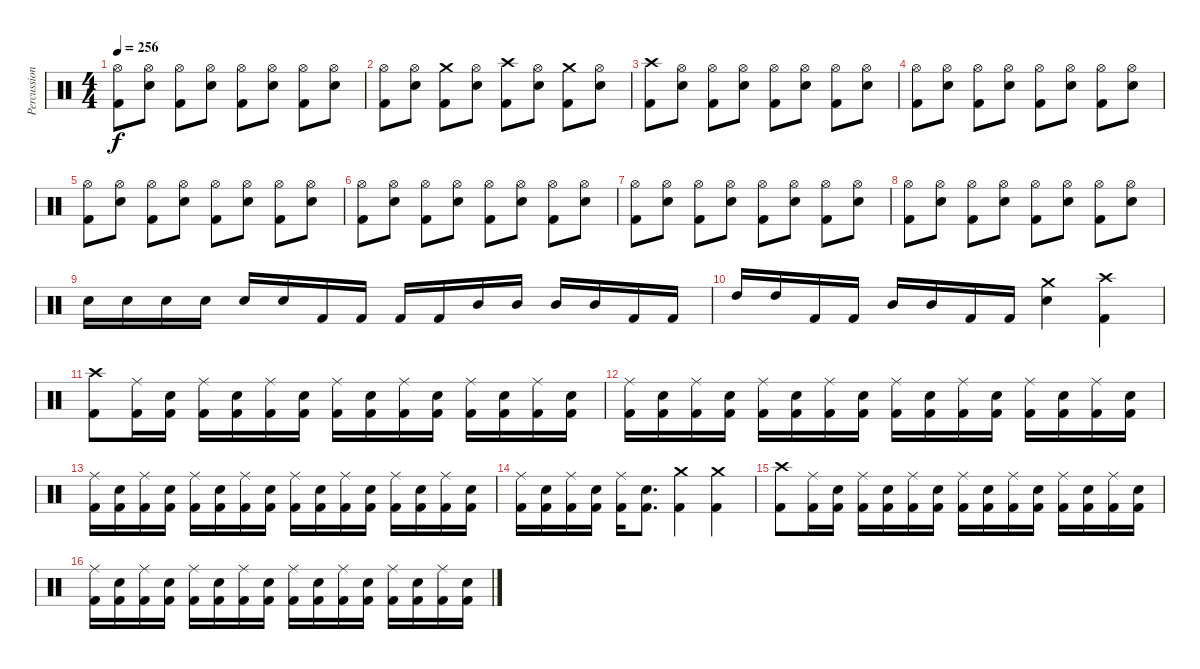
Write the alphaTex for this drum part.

\track ("Percussion" "Percussion") {instrument percussion}
\staff {score}
\articulation defaults
\ts (4 4)
\tempo 256
\clef neutral
\ks c
("Hi-Hat (open)" "Kick (hit) 2").8{dy f} ("Hi-Hat (open)" "Snare (hit) 2").8 ("Hi-Hat (open)" "Kick (hit) 2").8 ("Hi-Hat (open)" "Snare (hit) 2").8 ("Hi-Hat (open)" "Kick (hit) 2").8 ("Hi-Hat (open)" "Snare (hit) 2").8 ("Hi-Hat (open)" "Kick (hit) 2").8 ("Hi-Hat (open)" "Snare (hit) 2").8 |
("Hi-Hat (open)" "Kick (hit) 2").8 ("Hi-Hat (open)" "Snare (hit) 2").8 ("Crash medium (hit)" "Kick (hit) 2").8 ("Hi-Hat (open)" "Snare (hit) 2").8 ("Crash high (hit)" "Kick (hit) 2").8 ("Hi-Hat (open)" "Snare (hit) 2").8 ("Crash medium (hit)" "Kick (hit) 2").8 ("Hi-Hat (open)" "Snare (hit) 2").8 |
("Crash high (hit)" "Kick (hit) 2").8 ("Hi-Hat (open)" "Snare (hit) 2").8 ("Hi-Hat (open)" "Kick (hit) 2").8 ("Hi-Hat (open)" "Snare (hit) 2").8 ("Hi-Hat (open)" "Kick (hit) 2").8 ("Hi-Hat (open)" "Snare (hit) 2").8 ("Hi-Hat (open)" "Kick (hit) 2").8 ("Hi-Hat (open)" "Snare (hit) 2").8 |
("Hi-Hat (open)" "Kick (hit) 2").8 ("Hi-Hat (open)" "Snare (hit) 2").8 ("Hi-Hat (open)" "Kick (hit) 2").8 ("Hi-Hat (open)" "Snare (hit) 2").8 ("Hi-Hat (open)" "Kick (hit) 2").8 ("Hi-Hat (open)" "Snare (hit) 2").8 ("Hi-Hat (open)" "Kick (hit) 2").8 ("Hi-Hat (open)" "Snare (hit) 2").8 |
("Hi-Hat (open)" "Kick (hit) 2").8 ("Hi-Hat (open)" "Snare (hit) 2").8 ("Hi-Hat (open)" "Kick (hit) 2").8 ("Hi-Hat (open)" "Snare (hit) 2").8 ("Hi-Hat (open)" "Kick (hit) 2").8 ("Hi-Hat (open)" "Snare (hit) 2").8 ("Hi-Hat (open)" "Kick (hit) 2").8 ("Hi-Hat (open)" "Snare (hit) 2").8 |
("Hi-Hat (open)" "Kick (hit) 2").8 ("Hi-Hat (open)" "Snare (hit) 2").8 ("Hi-Hat (open)" "Kick (hit) 2").8 ("Hi-Hat (open)" "Snare (hit) 2").8 ("Hi-Hat (open)" "Kick (hit) 2").8 ("Hi-Hat (open)" "Snare (hit) 2").8 ("Hi-Hat (open)" "Kick (hit) 2").8 ("Hi-Hat (open)" "Snare (hit) 2").8 |
("Hi-Hat (open)" "Kick (hit) 2").8 ("Hi-Hat (open)" "Snare (hit) 2").8 ("Hi-Hat (open)" "Kick (hit) 2").8 ("Hi-Hat (open)" "Snare (hit) 2").8 ("Hi-Hat (open)" "Kick (hit) 2").8 ("Hi-Hat (open)" "Snare (hit) 2").8 ("Hi-Hat (open)" "Kick (hit) 2").8 ("Hi-Hat (open)" "Snare (hit) 2").8 |
("Hi-Hat (open)" "Kick (hit) 2").8 ("Hi-Hat (open)" "Snare (hit) 2").8 ("Hi-Hat (open)" "Kick (hit) 2").8 ("Hi-Hat (open)" "Snare (hit) 2").8 ("Hi-Hat (open)" "Kick (hit) 2").8 ("Hi-Hat (open)" "Snare (hit) 2").8 ("Hi-Hat (open)" "Kick (hit) 2").8 ("Hi-Hat (open)" "Snare (hit) 2").8 |
"Snare (hit) 2".16 "Snare (hit) 2".16 "Snare (hit) 2".16 "Snare (hit) 2".16 "Snare (hit) 2".16 "Snare (hit) 2".16 "Kick (hit) 2".16 "Kick (hit) 2".16 "Kick (hit) 2".16 "Kick (hit) 2".16 "Mid Tom (hit)".16 "Mid Tom (hit)".16 "Mid Tom (hit)".16 "Mid Tom (hit)".16 "Kick (hit) 2".16 "Kick (hit) 2".16 |
"High Tom (hit)".16 "High Tom (hit)".16 "Kick (hit) 2".16 "Kick (hit) 2".16 "Mid Tom (hit)".16 "Mid Tom (hit)".16 "Kick (hit) 2".16 "Kick (hit) 2".16 ("Crash medium (hit)" "Snare (hit) 2").4 ("Crash high (hit)" "Kick (hit) 2").4 |
("Crash high (hit)" "Kick (hit) 2").8 ("Ride (middle)" "Kick (hit) 2").16 ("Snare (hit) 2" "Kick (hit) 2").16 ("Ride (middle)" "Kick (hit) 2").16 ("Snare (hit) 2" "Kick (hit) 2").16 ("Ride (middle)" "Kick (hit) 2").16 ("Snare (hit) 2" "Kick (hit) 2").16 ("Ride (middle)" "Kick (hit) 2").16 ("Snare (hit) 2" "Kick (hit) 2").16 ("Ride (middle)" "Kick (hit) 2").16 ("Snare (hit) 2" "Kick (hit) 2").16 ("Ride (middle)" "Kick (hit) 2").16 ("Kick (hit) 2" "Snare (hit) 2").16 ("Ride (middle)" "Kick (hit) 2").16 ("Kick (hit) 2" "Snare (hit) 2").16 |
("Ride (middle)" "Kick (hit) 2").16 ("Snare (hit) 2" "Kick (hit) 2").16 ("Ride (middle)" "Kick (hit) 2").16 ("Snare (hit) 2" "Kick (hit) 2").16 ("Ride (middle)" "Kick (hit) 2").16 ("Snare (hit) 2" "Kick (hit) 2").16 ("Ride (middle)" "Kick (hit) 2").16 ("Snare (hit) 2" "Kick (hit) 2").16 ("Ride (middle)" "Kick (hit) 2").16 ("Snare (hit) 2" "Kick (hit) 2").16 ("Ride (middle)" "Kick (hit) 2").16 ("Snare (hit) 2" "Kick (hit) 2").16 ("Ride (middle)" "Kick (hit) 2").16 ("Snare (hit) 2" "Kick (hit) 2").16 ("Ride (middle)" "Kick (hit) 2").16 ("Snare (hit) 2" "Kick (hit) 2").16 |
("Ride (middle)" "Kick (hit) 2").16 ("Snare (hit) 2" "Kick (hit) 2").16 ("Ride (middle)" "Kick (hit) 2").16 ("Snare (hit) 2" "Kick (hit) 2").16 ("Ride (middle)" "Kick (hit) 2").16 ("Snare (hit) 2" "Kick (hit) 2").16 ("Ride (middle)" "Kick (hit) 2").16 ("Snare (hit) 2" "Kick (hit) 2").16 ("Ride (middle)" "Kick (hit) 2").16 ("Snare (hit) 2" "Kick (hit) 2").16 ("Ride (middle)" "Kick (hit) 2").16 ("Snare (hit) 2" "Kick (hit) 2").16 ("Ride (middle)" "Kick (hit) 2").16 ("Snare (hit) 2" "Kick (hit) 2").16 ("Ride (middle)" "Kick (hit) 2").16 ("Snare (hit) 2" "Kick (hit) 2").16 |
("Ride (middle)" "Kick (hit) 2").16 ("Snare (hit) 2" "Kick (hit) 2").16 ("Ride (middle)" "Kick (hit) 2").16 ("Snare (hit) 2" "Kick (hit) 2").16 ("Ride (middle)" "Kick (hit) 2").16 ("Snare (hit) 2" "Kick (hit) 2").8{d} ("Crash medium (hit)" "Kick (hit) 2").4 ("Crash medium (hit)" "Kick (hit) 2").4 |
("Crash high (hit)" "Kick (hit) 2").8 ("Ride (middle)" "Kick (hit) 2").16 ("Snare (hit) 2" "Kick (hit) 2").16 ("Ride (middle)" "Kick (hit) 2").16 ("Snare (hit) 2" "Kick (hit) 2").16 ("Ride (middle)" "Kick (hit) 2").16 ("Snare (hit) 2" "Kick (hit) 2").16 ("Ride (middle)" "Kick (hit) 2").16 ("Snare (hit) 2" "Kick (hit) 2").16 ("Ride (middle)" "Kick (hit) 2").16 ("Snare (hit) 2" "Kick (hit) 2").16 ("Ride (middle)" "Kick (hit) 2").16 ("Kick (hit) 2" "Snare (hit) 2").16 ("Ride (middle)" "Kick (hit) 2").16 ("Kick (hit) 2" "Snare (hit) 2").16 |
("Ride (middle)" "Kick (hit) 2").16 ("Snare (hit) 2" "Kick (hit) 2").16 ("Ride (middle)" "Kick (hit) 2").16 ("Snare (hit) 2" "Kick (hit) 2").16 ("Ride (middle)" "Kick (hit) 2").16 ("Snare (hit) 2" "Kick (hit) 2").16 ("Ride (middle)" "Kick (hit) 2").16 ("Snare (hit) 2" "Kick (hit) 2").16 ("Ride (middle)" "Kick (hit) 2").16 ("Snare (hit) 2" "Kick (hit) 2").16 ("Ride (middle)" "Kick (hit) 2").16 ("Snare (hit) 2" "Kick (hit) 2").16 ("Ride (middle)" "Kick (hit) 2").16 ("Snare (hit) 2" "Kick (hit) 2").16 ("Ride (middle)" "Kick (hit) 2").16 ("Snare (hit) 2" "Kick (hit) 2").16
